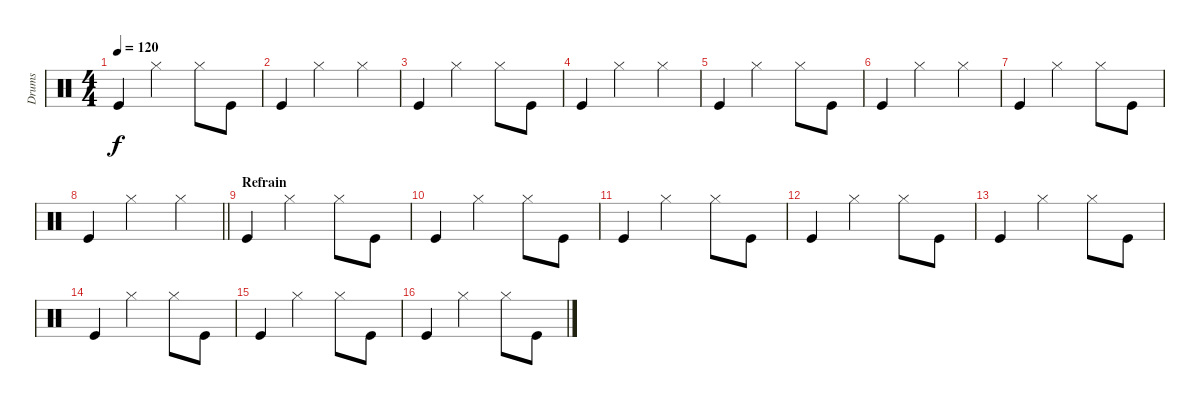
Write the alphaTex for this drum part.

\track ("Drums" "Drums") {instrument percussion}
\staff {score}
\articulation defaults
\ts (4 4)
\tempo 120
\clef neutral
\ks c "Kick (hit)".4{dy f} "Hi-Hat (closed)".2 "Hi-Hat (closed)".8 "Kick (hit)".8
|
"Kick (hit)".4 "Hi-Hat (closed)".2 "Hi-Hat (closed)".4 |
"Kick (hit)".4 "Hi-Hat (closed)".2 "Hi-Hat (closed)".8 "Kick (hit)".8 |
"Kick (hit)".4 "Hi-Hat (closed)".2 "Hi-Hat (closed)".4 |
"Kick (hit)".4 "Hi-Hat (closed)".2 "Hi-Hat (closed)".8 "Kick (hit)".8 |
"Kick (hit)".4 "Hi-Hat (closed)".2 "Hi-Hat (closed)".4 |
"Kick (hit)".4 "Hi-Hat (closed)".2 "Hi-Hat (closed)".8 "Kick (hit)".8 |
\barLineRight lightlight "Kick (hit)".4 "Hi-Hat (closed)".2 "Hi-Hat (closed)".4
|
\section ("" "Refrain")
"Kick (hit)".4 "Hi-Hat (closed)".2 "Hi-Hat (closed)".8 "Kick (hit)".8 |
"Kick (hit)".4 "Hi-Hat (closed)".2 "Hi-Hat (closed)".8 "Kick (hit)".8 |
"Kick (hit)".4 "Hi-Hat (closed)".2 "Hi-Hat (closed)".8 "Kick (hit)".8 |
"Kick (hit)".4 "Hi-Hat (closed)".2 "Hi-Hat (closed)".8 "Kick (hit)".8 |
"Kick (hit)".4 "Hi-Hat (closed)".2 "Hi-Hat (closed)".8 "Kick (hit)".8 |
"Kick (hit)".4 "Hi-Hat (closed)".2 "Hi-Hat (closed)".8 "Kick (hit)".8 |
"Kick (hit)".4 "Hi-Hat (closed)".2 "Hi-Hat (closed)".8 "Kick (hit)".8 |
"Kick (hit)".4 "Hi-Hat (closed)".2 "Hi-Hat (closed)".8 "Kick (hit)".8
